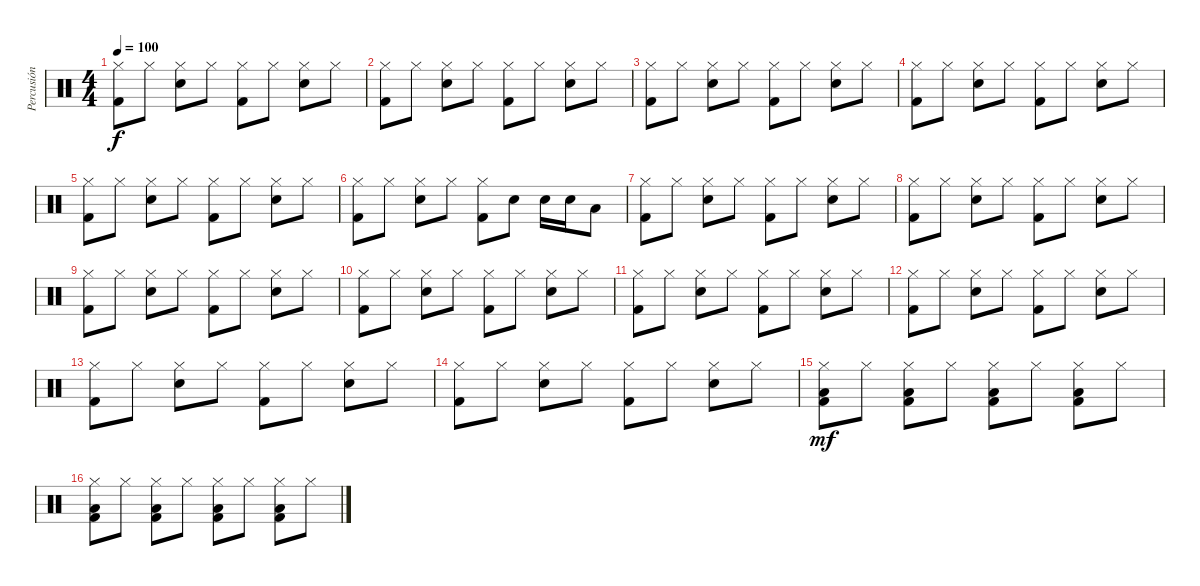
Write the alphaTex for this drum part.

\track ("Percusión" "Percusión") {instrument percussion}
\staff {score}
\articulation defaults
\ts (4 4)
\tempo 100
\clef neutral
\ks c
("Hi-Hat (closed)" "Kick (hit) 2").8{dy f} "Hi-Hat (closed)".8 ("Hi-Hat (closed)" "Electric Snare (hit)").8 "Hi-Hat (closed)".8 ("Hi-Hat (closed)" "Kick (hit) 2").8 "Hi-Hat (closed)".8 ("Hi-Hat (closed)" "Electric Snare (hit)").8 "Hi-Hat (closed)".8 |
("Hi-Hat (closed)" "Kick (hit) 2").8 "Hi-Hat (closed)".8 ("Hi-Hat (closed)" "Electric Snare (hit)").8 "Hi-Hat (closed)".8 ("Hi-Hat (closed)" "Kick (hit) 2").8 "Hi-Hat (closed)".8 ("Hi-Hat (closed)" "Electric Snare (hit)").8 "Hi-Hat (closed)".8 |
("Hi-Hat (closed)" "Kick (hit) 2").8 "Hi-Hat (closed)".8 ("Hi-Hat (closed)" "Electric Snare (hit)").8 "Hi-Hat (closed)".8 ("Hi-Hat (closed)" "Kick (hit) 2").8 "Hi-Hat (closed)".8 ("Hi-Hat (closed)" "Electric Snare (hit)").8 "Hi-Hat (closed)".8 |
("Hi-Hat (closed)" "Kick (hit) 2").8 "Hi-Hat (closed)".8 ("Hi-Hat (closed)" "Electric Snare (hit)").8 "Hi-Hat (closed)".8 ("Hi-Hat (closed)" "Kick (hit) 2").8 "Hi-Hat (closed)".8 ("Hi-Hat (closed)" "Electric Snare (hit)").8 "Hi-Hat (closed)".8 |
("Hi-Hat (closed)" "Kick (hit) 2").8 "Hi-Hat (closed)".8 ("Hi-Hat (closed)" "Electric Snare (hit)").8 "Hi-Hat (closed)".8 ("Hi-Hat (closed)" "Kick (hit) 2").8 "Hi-Hat (closed)".8 ("Hi-Hat (closed)" "Electric Snare (hit)").8 "Hi-Hat (closed)".8 |
("Hi-Hat (closed)" "Kick (hit) 2").8 "Hi-Hat (closed)".8 ("Hi-Hat (closed)" "Electric Snare (hit)").8 "Hi-Hat (closed)".8 ("Hi-Hat (closed)" "Kick (hit) 2").8 "Electric Snare (hit)".8 "Electric Snare (hit)".16 "Electric Snare (hit)".16 "Low Tom (hit)".8 |
("Hi-Hat (closed)" "Kick (hit) 2").8 "Hi-Hat (closed)".8 ("Hi-Hat (closed)" "Electric Snare (hit)").8 "Hi-Hat (closed)".8 ("Hi-Hat (closed)" "Kick (hit) 2").8 "Hi-Hat (closed)".8 ("Hi-Hat (closed)" "Electric Snare (hit)").8 "Hi-Hat (closed)".8 |
("Hi-Hat (closed)" "Kick (hit) 2").8 "Hi-Hat (closed)".8 ("Hi-Hat (closed)" "Electric Snare (hit)").8 "Hi-Hat (closed)".8 ("Hi-Hat (closed)" "Kick (hit) 2").8 "Hi-Hat (closed)".8 ("Hi-Hat (closed)" "Electric Snare (hit)").8 "Hi-Hat (closed)".8 |
("Hi-Hat (closed)" "Kick (hit) 2").8 "Hi-Hat (closed)".8 ("Hi-Hat (closed)" "Electric Snare (hit)").8 "Hi-Hat (closed)".8 ("Hi-Hat (closed)" "Kick (hit) 2").8 "Hi-Hat (closed)".8 ("Hi-Hat (closed)" "Electric Snare (hit)").8 "Hi-Hat (closed)".8 |
("Hi-Hat (closed)" "Kick (hit) 2").8 "Hi-Hat (closed)".8 ("Hi-Hat (closed)" "Electric Snare (hit)").8 "Hi-Hat (closed)".8 ("Hi-Hat (closed)" "Kick (hit) 2").8 "Hi-Hat (closed)".8 ("Hi-Hat (closed)" "Electric Snare (hit)").8 "Hi-Hat (closed)".8 |
("Hi-Hat (closed)" "Kick (hit) 2").8 "Hi-Hat (closed)".8 ("Hi-Hat (closed)" "Electric Snare (hit)").8 "Hi-Hat (closed)".8 ("Hi-Hat (closed)" "Kick (hit) 2").8 "Hi-Hat (closed)".8 ("Hi-Hat (closed)" "Electric Snare (hit)").8 "Hi-Hat (closed)".8 |
("Hi-Hat (closed)" "Kick (hit) 2").8 "Hi-Hat (closed)".8 ("Hi-Hat (closed)" "Electric Snare (hit)").8 "Hi-Hat (closed)".8 ("Hi-Hat (closed)" "Kick (hit) 2").8 "Hi-Hat (closed)".8 ("Hi-Hat (closed)" "Electric Snare (hit)").8 "Hi-Hat (closed)".8 |
("Hi-Hat (closed)" "Kick (hit) 2").8 "Hi-Hat (closed)".8 ("Hi-Hat (closed)" "Electric Snare (hit)").8 "Hi-Hat (closed)".8 ("Hi-Hat (closed)" "Kick (hit) 2").8 "Hi-Hat (closed)".8 ("Hi-Hat (closed)" "Electric Snare (hit)").8 "Hi-Hat (closed)".8 |
("Hi-Hat (closed)" "Kick (hit) 2").8 "Hi-Hat (closed)".8 ("Hi-Hat (closed)" "Electric Snare (hit)").8 "Hi-Hat (closed)".8 ("Hi-Hat (closed)" "Kick (hit) 2").8 "Hi-Hat (closed)".8 ("Hi-Hat (closed)" "Electric Snare (hit)").8 "Hi-Hat (closed)".8 |
("Hi-Hat (closed)" "Low Floor Tom (hit)" "Kick (hit) 2").8{dy mf} "Hi-Hat (closed)".8 ("Hi-Hat (closed)" "Low Floor Tom (hit)" "Kick (hit) 2").8 "Hi-Hat (closed)".8 ("Hi-Hat (closed)" "Low Floor Tom (hit)" "Kick (hit) 2").8 "Hi-Hat (closed)".8 ("Hi-Hat (closed)" "Low Floor Tom (hit)" "Kick (hit) 2").8 "Hi-Hat (closed)".8 |
("Hi-Hat (closed)" "Low Floor Tom (hit)" "Kick (hit) 2").8 "Hi-Hat (closed)".8 ("Hi-Hat (closed)" "Low Floor Tom (hit)" "Kick (hit) 2").8 "Hi-Hat (closed)".8 ("Hi-Hat (closed)" "Low Floor Tom (hit)" "Kick (hit) 2").8 "Hi-Hat (closed)".8 ("Hi-Hat (closed)" "Low Floor Tom (hit)" "Kick (hit) 2").8 "Hi-Hat (closed)".8
